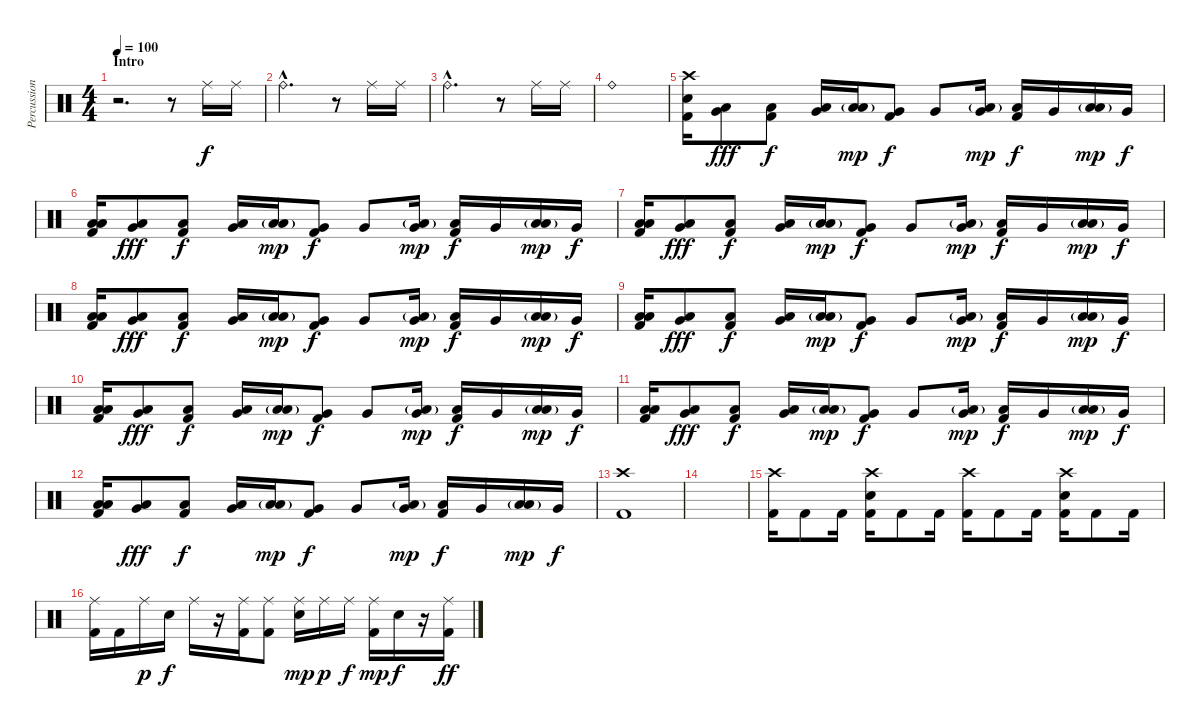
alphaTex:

\track ("Percussion" "Percussion") {instrument percussion}
\staff {score}
\articulation defaults
\ts (4 4)
\section ("" "Intro")
\tempo 100
\clef neutral
\ks c
r.2{d dy f} r.8 "Ride (middle)".16 "Ride (middle)".16 |
"Ride (bell)"{hac}.2{d} r.8 "Ride (middle)".16 "Ride (middle)".16 |
"Ride (bell)"{hac}.2{d} r.8 "Ride (middle)".16 "Ride (middle)".16 |
"Ride (bell)".1 |
("Crash high (hit)" "Electric Snare (hit)" "Kick (hit) 2").16 ("Very Low Tom (hit)" "Low Floor Tom (hit)").8{dy fff} ("Low Tom (hit)" "Kick (hit) 2").8{dy f} ("Very Low Tom (hit)" "Low Floor Tom (hit)").16 ("Low Tom (hit)" "Low Tom (hit)"{g}).16{bd 480 dy mp} ("Very Low Tom (hit)" "Kick (hit) 2").8{dy f} "Very Low Tom (hit)".8 ("Very Low Tom (hit)" "Low Floor Tom (hit)"{g}).16{bd 480 dy mp} ("Low Tom (hit)" "Kick (hit) 2").16{dy f} "Very Low Tom (hit)".16 ("Low Tom (hit)" "Low Tom (hit)"{g}).16{bd 480 dy mp} "Very Low Tom (hit)".16{dy f} |
("Low Tom (hit)" "Low Floor Tom (hit)" "Kick (hit) 2").16{bd 480} ("Very Low Tom (hit)" "Low Floor Tom (hit)").8{dy fff} ("Low Tom (hit)" "Kick (hit) 2").8{dy f} ("Very Low Tom (hit)" "Low Floor Tom (hit)").16 ("Low Tom (hit)" "Low Tom (hit)"{g}).16{bd 480 dy mp} ("Very Low Tom (hit)" "Kick (hit) 2").8{dy f} "Very Low Tom (hit)".8 ("Very Low Tom (hit)" "Low Floor Tom (hit)"{g}).16{bd 480 dy mp} ("Low Tom (hit)" "Kick (hit) 2").16{dy f} "Very Low Tom (hit)".16 ("Low Tom (hit)" "Low Tom (hit)"{g}).16{bd 480 dy mp} "Very Low Tom (hit)".16{dy f} |
("Low Tom (hit)" "Low Floor Tom (hit)" "Kick (hit) 2").16{bd 480} ("Very Low Tom (hit)" "Low Floor Tom (hit)").8{dy fff} ("Low Tom (hit)" "Kick (hit) 2").8{dy f} ("Very Low Tom (hit)" "Low Floor Tom (hit)").16 ("Low Tom (hit)" "Low Tom (hit)"{g}).16{bd 480 dy mp} ("Very Low Tom (hit)" "Kick (hit) 2").8{dy f} "Very Low Tom (hit)".8 ("Very Low Tom (hit)" "Low Floor Tom (hit)"{g}).16{bd 480 dy mp} ("Low Tom (hit)" "Kick (hit) 2").16{dy f} "Very Low Tom (hit)".16 ("Low Tom (hit)" "Low Tom (hit)"{g}).16{bd 480 dy mp} "Very Low Tom (hit)".16{dy f} |
("Low Tom (hit)" "Low Floor Tom (hit)" "Kick (hit) 2").16{bd 480} ("Very Low Tom (hit)" "Low Floor Tom (hit)").8{dy fff} ("Low Tom (hit)" "Kick (hit) 2").8{dy f} ("Very Low Tom (hit)" "Low Floor Tom (hit)").16 ("Low Tom (hit)" "Low Tom (hit)"{g}).16{bd 480 dy mp} ("Very Low Tom (hit)" "Kick (hit) 2").8{dy f} "Very Low Tom (hit)".8 ("Very Low Tom (hit)" "Low Floor Tom (hit)"{g}).16{bd 480 dy mp} ("Low Tom (hit)" "Kick (hit) 2").16{dy f} "Very Low Tom (hit)".16 ("Low Tom (hit)" "Low Tom (hit)"{g}).16{bd 480 dy mp} "Very Low Tom (hit)".16{dy f} |
("Low Tom (hit)" "Low Floor Tom (hit)" "Kick (hit) 2").16{bd 480} ("Very Low Tom (hit)" "Low Floor Tom (hit)").8{dy fff} ("Low Tom (hit)" "Kick (hit) 2").8{dy f} ("Very Low Tom (hit)" "Low Floor Tom (hit)").16 ("Low Tom (hit)" "Low Tom (hit)"{g}).16{bd 480 dy mp} ("Very Low Tom (hit)" "Kick (hit) 2").8{dy f} "Very Low Tom (hit)".8 ("Very Low Tom (hit)" "Low Floor Tom (hit)"{g}).16{bd 480 dy mp} ("Low Tom (hit)" "Kick (hit) 2").16{dy f} "Very Low Tom (hit)".16 ("Low Tom (hit)" "Low Tom (hit)"{g}).16{bd 480 dy mp} "Very Low Tom (hit)".16{dy f} |
("Low Tom (hit)" "Low Floor Tom (hit)" "Kick (hit) 2").16{bd 480} ("Very Low Tom (hit)" "Low Floor Tom (hit)").8{dy fff} ("Low Tom (hit)" "Kick (hit) 2").8{dy f} ("Very Low Tom (hit)" "Low Floor Tom (hit)").16 ("Low Tom (hit)" "Low Tom (hit)"{g}).16{bd 480 dy mp} ("Very Low Tom (hit)" "Kick (hit) 2").8{dy f} "Very Low Tom (hit)".8 ("Very Low Tom (hit)" "Low Floor Tom (hit)"{g}).16{bd 480 dy mp} ("Low Tom (hit)" "Kick (hit) 2").16{dy f} "Very Low Tom (hit)".16 ("Low Tom (hit)" "Low Tom (hit)"{g}).16{bd 480 dy mp} "Very Low Tom (hit)".16{dy f} |
("Low Tom (hit)" "Low Floor Tom (hit)" "Kick (hit) 2").16{bd 480} ("Very Low Tom (hit)" "Low Floor Tom (hit)").8{dy fff} ("Low Tom (hit)" "Kick (hit) 2").8{dy f} ("Very Low Tom (hit)" "Low Floor Tom (hit)").16 ("Low Tom (hit)" "Low Tom (hit)"{g}).16{bd 480 dy mp} ("Very Low Tom (hit)" "Kick (hit) 2").8{dy f} "Very Low Tom (hit)".8 ("Very Low Tom (hit)" "Low Floor Tom (hit)"{g}).16{bd 480 dy mp} ("Low Tom (hit)" "Kick (hit) 2").16{dy f} "Very Low Tom (hit)".16 ("Low Tom (hit)" "Low Tom (hit)"{g}).16{bd 480 dy mp} "Very Low Tom (hit)".16{dy f} |
("Low Tom (hit)" "Low Floor Tom (hit)" "Kick (hit) 2").16{bd 480} ("Very Low Tom (hit)" "Low Floor Tom (hit)").8{dy fff} ("Low Tom (hit)" "Kick (hit) 2").8{dy f} ("Very Low Tom (hit)" "Low Floor Tom (hit)").16 ("Low Tom (hit)" "Low Tom (hit)"{g}).16{bd 480 dy mp} ("Very Low Tom (hit)" "Kick (hit) 2").8{dy f} "Very Low Tom (hit)".8 ("Very Low Tom (hit)" "Low Floor Tom (hit)"{g}).16{bd 480 dy mp} ("Low Tom (hit)" "Kick (hit) 2").16{dy f} "Very Low Tom (hit)".16 ("Low Tom (hit)" "Low Tom (hit)"{g}).16{bd 480 dy mp} "Very Low Tom (hit)".16{dy f} |
("Crash high (hit)" "Kick (hit) 2").1 |
|
("Crash high (hit)" "Kick (hit) 2").16 "Kick (hit) 2".8 "Kick (hit) 2".16 ("Crash high (hit)" "Electric Snare (hit)" "Kick (hit) 2").16 "Kick (hit) 2".8 "Kick (hit) 2".16 ("Crash high (hit)" "Kick (hit) 2").16 "Kick (hit) 2".8 "Kick (hit) 2".16 ("Crash high (hit)" "Electric Snare (hit)" "Kick (hit) 2").16 "Kick (hit) 2".8 "Kick (hit) 2".16 |
("Ride (middle)" "Kick (hit) 2").16 "Kick (hit) 2".16 "Ride (middle)".16{dy p} "Electric Snare (hit)".16{dy f} "Ride (middle)".16 r.16 ("Ride (middle)" "Kick (hit) 2").16 ("Ride (middle)" "Kick (hit) 2").8 ("Ride (middle)" "Electric Snare (hit)").16{dy mp} "Ride (middle)".16{dy p} "Ride (middle)".16{dy f} ("Ride (middle)" "Kick (hit) 2").16{dy mp} "Electric Snare (hit)".16{dy f} r.16 ("Ride (middle)" "Kick (hit) 2").16{dy ff}
